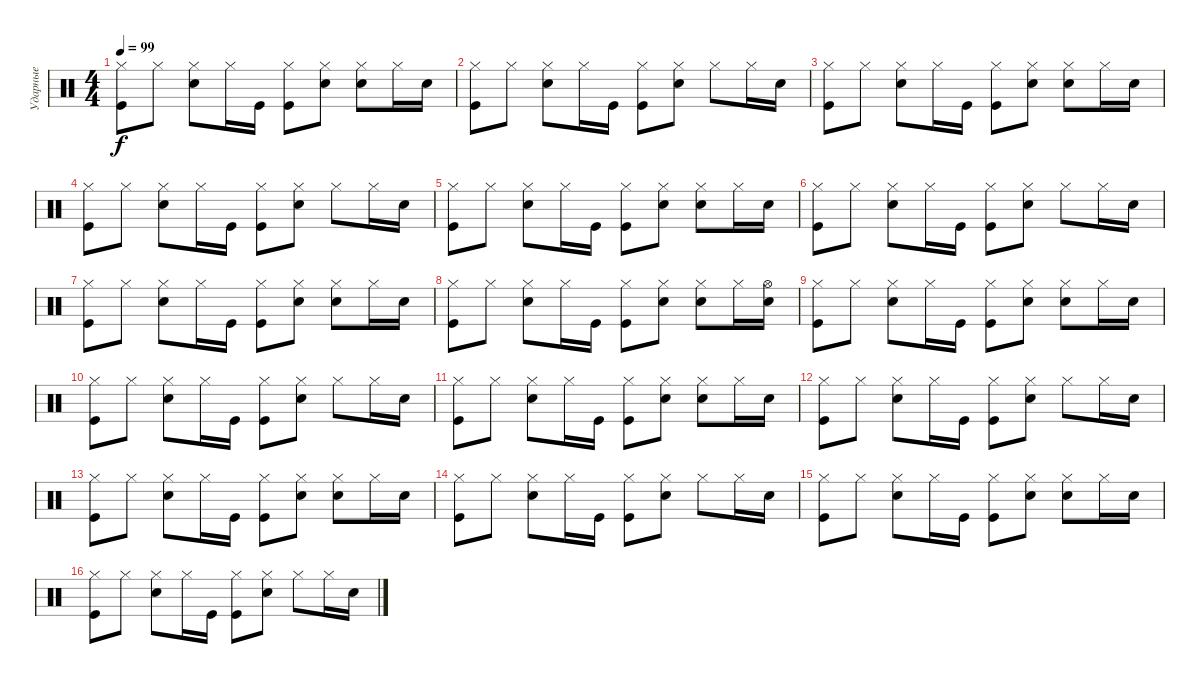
\track ("Ударные" "Ударные") {instrument percussion}
\staff {score}
\articulation defaults
\ts (4 4)
\tempo 99
\clef neutral
\ks c
("Kick (hit)" "Hi-Hat (closed)").8{dy f} "Hi-Hat (closed)".8 ("Snare (hit) 2" "Hi-Hat (closed)").8 "Hi-Hat (closed)".16 "Kick (hit)".16 ("Hi-Hat (closed)" "Kick (hit)").8 ("Snare (hit) 2" "Hi-Hat (closed)").8 ("Hi-Hat (closed)" "Snare (hit) 2").8 "Hi-Hat (closed)".16 "Snare (hit) 2".16 |
("Kick (hit)" "Hi-Hat (closed)").8 "Hi-Hat (closed)".8 ("Snare (hit) 2" "Hi-Hat (closed)").8 "Hi-Hat (closed)".16 "Kick (hit)".16 ("Hi-Hat (closed)" "Kick (hit)").8 ("Snare (hit) 2" "Hi-Hat (closed)").8 "Hi-Hat (closed)".8 "Hi-Hat (closed)".16 "Snare (hit) 2".16 |
("Kick (hit)" "Hi-Hat (closed)").8 "Hi-Hat (closed)".8 ("Snare (hit) 2" "Hi-Hat (closed)").8 "Hi-Hat (closed)".16 "Kick (hit)".16 ("Hi-Hat (closed)" "Kick (hit)").8 ("Snare (hit) 2" "Hi-Hat (closed)").8 ("Hi-Hat (closed)" "Snare (hit) 2").8 "Hi-Hat (closed)".16 "Snare (hit) 2".16 |
("Kick (hit)" "Hi-Hat (closed)").8 "Hi-Hat (closed)".8 ("Snare (hit) 2" "Hi-Hat (closed)").8 "Hi-Hat (closed)".16 "Kick (hit)".16 ("Hi-Hat (closed)" "Kick (hit)").8 ("Snare (hit) 2" "Hi-Hat (closed)").8 "Hi-Hat (closed)".8 "Hi-Hat (closed)".16 "Snare (hit) 2".16 |
("Kick (hit)" "Hi-Hat (closed)").8 "Hi-Hat (closed)".8 ("Snare (hit) 2" "Hi-Hat (closed)").8 "Hi-Hat (closed)".16 "Kick (hit)".16 ("Hi-Hat (closed)" "Kick (hit)").8 ("Snare (hit) 2" "Hi-Hat (closed)").8 ("Hi-Hat (closed)" "Snare (hit) 2").8 "Hi-Hat (closed)".16 "Snare (hit) 2".16 |
("Kick (hit)" "Hi-Hat (closed)").8 "Hi-Hat (closed)".8 ("Snare (hit) 2" "Hi-Hat (closed)").8 "Hi-Hat (closed)".16 "Kick (hit)".16 ("Hi-Hat (closed)" "Kick (hit)").8 ("Snare (hit) 2" "Hi-Hat (closed)").8 "Hi-Hat (closed)".8 "Hi-Hat (closed)".16 "Snare (hit) 2".16 |
("Kick (hit)" "Hi-Hat (closed)").8 "Hi-Hat (closed)".8 ("Snare (hit) 2" "Hi-Hat (closed)").8 "Hi-Hat (closed)".16 "Kick (hit)".16 ("Hi-Hat (closed)" "Kick (hit)").8 ("Snare (hit) 2" "Hi-Hat (closed)").8 ("Hi-Hat (closed)" "Snare (hit) 2").8 "Hi-Hat (closed)".16 "Snare (hit) 2".16 |
("Kick (hit)" "Hi-Hat (closed)").8 "Hi-Hat (closed)".8 ("Snare (hit) 2" "Hi-Hat (closed)").8 "Hi-Hat (closed)".16 "Kick (hit)".16 ("Hi-Hat (closed)" "Kick (hit)").8 ("Snare (hit) 2" "Hi-Hat (closed)").8 ("Hi-Hat (closed)" "Snare (hit) 2").8 "Hi-Hat (closed)".16 ("Snare (hit) 2" "Hi-Hat (open)").16 |
("Kick (hit)" "Hi-Hat (closed)").8 "Hi-Hat (closed)".8 ("Snare (hit) 2" "Hi-Hat (closed)").8 "Hi-Hat (closed)".16 "Kick (hit)".16 ("Hi-Hat (closed)" "Kick (hit)").8 ("Snare (hit) 2" "Hi-Hat (closed)").8 ("Hi-Hat (closed)" "Snare (hit) 2").8 "Hi-Hat (closed)".16 "Snare (hit) 2".16 |
("Kick (hit)" "Hi-Hat (closed)").8 "Hi-Hat (closed)".8 ("Snare (hit) 2" "Hi-Hat (closed)").8 "Hi-Hat (closed)".16 "Kick (hit)".16 ("Hi-Hat (closed)" "Kick (hit)").8 ("Snare (hit) 2" "Hi-Hat (closed)").8 "Hi-Hat (closed)".8 "Hi-Hat (closed)".16 "Snare (hit) 2".16 |
("Kick (hit)" "Hi-Hat (closed)").8 "Hi-Hat (closed)".8 ("Snare (hit) 2" "Hi-Hat (closed)").8 "Hi-Hat (closed)".16 "Kick (hit)".16 ("Hi-Hat (closed)" "Kick (hit)").8 ("Snare (hit) 2" "Hi-Hat (closed)").8 ("Hi-Hat (closed)" "Snare (hit) 2").8 "Hi-Hat (closed)".16 "Snare (hit) 2".16 |
("Kick (hit)" "Hi-Hat (closed)").8 "Hi-Hat (closed)".8 ("Snare (hit) 2" "Hi-Hat (closed)").8 "Hi-Hat (closed)".16 "Kick (hit)".16 ("Hi-Hat (closed)" "Kick (hit)").8 ("Snare (hit) 2" "Hi-Hat (closed)").8 "Hi-Hat (closed)".8 "Hi-Hat (closed)".16 "Snare (hit) 2".16 |
("Kick (hit)" "Hi-Hat (closed)").8 "Hi-Hat (closed)".8 ("Snare (hit) 2" "Hi-Hat (closed)").8 "Hi-Hat (closed)".16 "Kick (hit)".16 ("Hi-Hat (closed)" "Kick (hit)").8 ("Snare (hit) 2" "Hi-Hat (closed)").8 ("Hi-Hat (closed)" "Snare (hit) 2").8 "Hi-Hat (closed)".16 "Snare (hit) 2".16 |
("Kick (hit)" "Hi-Hat (closed)").8 "Hi-Hat (closed)".8 ("Snare (hit) 2" "Hi-Hat (closed)").8 "Hi-Hat (closed)".16 "Kick (hit)".16 ("Hi-Hat (closed)" "Kick (hit)").8 ("Snare (hit) 2" "Hi-Hat (closed)").8 "Hi-Hat (closed)".8 "Hi-Hat (closed)".16 "Snare (hit) 2".16 |
("Kick (hit)" "Hi-Hat (closed)").8 "Hi-Hat (closed)".8 ("Snare (hit) 2" "Hi-Hat (closed)").8 "Hi-Hat (closed)".16 "Kick (hit)".16 ("Hi-Hat (closed)" "Kick (hit)").8 ("Snare (hit) 2" "Hi-Hat (closed)").8 ("Hi-Hat (closed)" "Snare (hit) 2").8 "Hi-Hat (closed)".16 "Snare (hit) 2".16 |
("Kick (hit)" "Hi-Hat (closed)").8 "Hi-Hat (closed)".8 ("Snare (hit) 2" "Hi-Hat (closed)").8 "Hi-Hat (closed)".16 "Kick (hit)".16 ("Hi-Hat (closed)" "Kick (hit)").8 ("Snare (hit) 2" "Hi-Hat (closed)").8 "Hi-Hat (closed)".8 "Hi-Hat (closed)".16 "Snare (hit) 2".16
